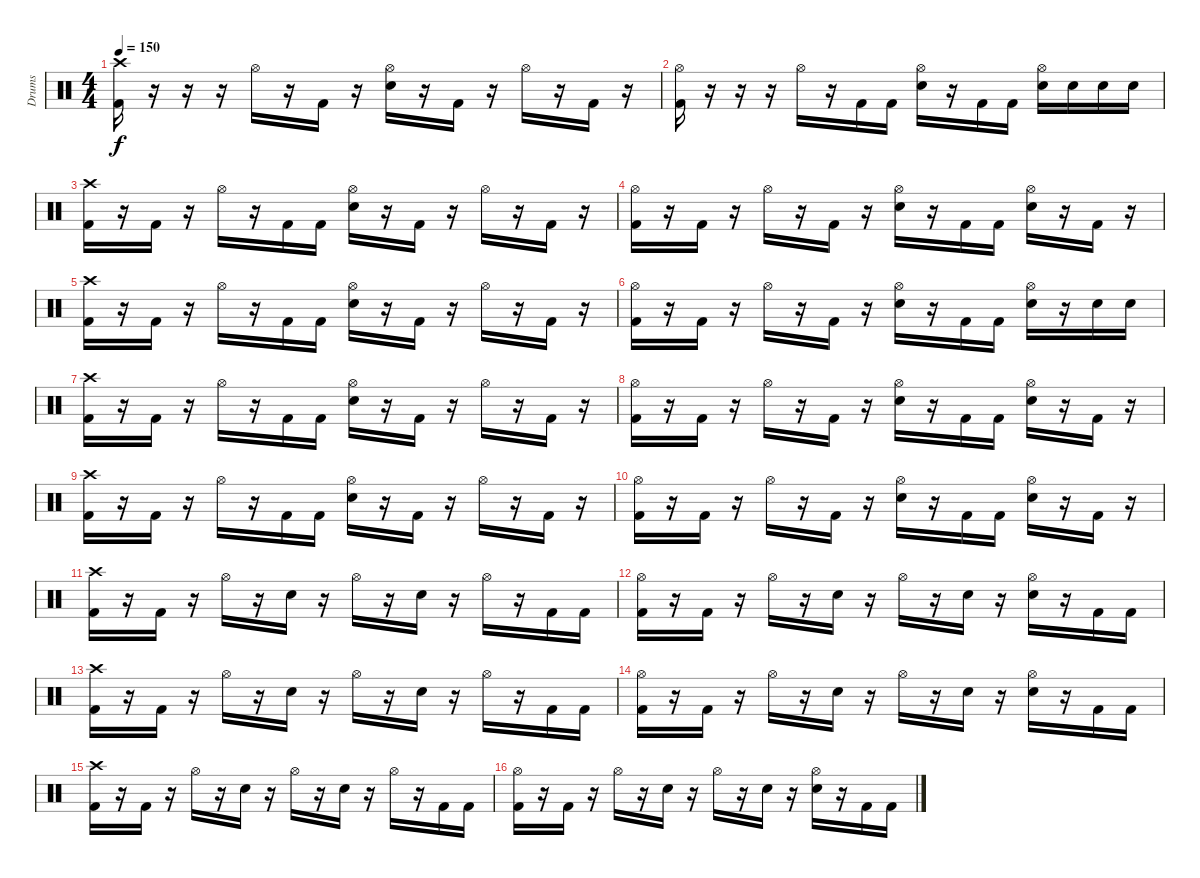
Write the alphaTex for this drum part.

\track ("Drums" "Drums") {instrument percussion}
\staff {score}
\articulation defaults
\ts (4 4)
\tempo 150
\clef neutral
\ks c
("Crash high (hit)" "Kick (hit) 2").16{dy f} r.16 r.16 r.16 "Hi-Hat (open)".16 r.16 "Kick (hit) 2".16 r.16 ("Hi-Hat (open)" "Electric Snare (hit)").16 r.16 "Kick (hit) 2".16 r.16 "Hi-Hat (open)".16 r.16 "Kick (hit) 2".16 r.16 |
("Hi-Hat (open)" "Kick (hit) 2").16 r.16 r.16 r.16 "Hi-Hat (open)".16 r.16 "Kick (hit) 2".16 "Kick (hit) 2".16 ("Hi-Hat (open)" "Electric Snare (hit)").16 r.16 "Kick (hit) 2".16 "Kick (hit) 2".16 ("Hi-Hat (open)" "Electric Snare (hit)").16 "Electric Snare (hit)".16 "Electric Snare (hit)".16 "Electric Snare (hit)".16 |
("Crash high (hit)" "Kick (hit) 2").16 r.16 "Kick (hit) 2".16 r.16 "Hi-Hat (open)".16 r.16 "Kick (hit) 2".16 "Kick (hit) 2".16 ("Hi-Hat (open)" "Electric Snare (hit)").16 r.16 "Kick (hit) 2".16 r.16 "Hi-Hat (open)".16 r.16 "Kick (hit) 2".16 r.16 |
("Hi-Hat (open)" "Kick (hit) 2").16 r.16 "Kick (hit) 2".16 r.16 "Hi-Hat (open)".16 r.16 "Kick (hit) 2".16 r.16 ("Hi-Hat (open)" "Electric Snare (hit)").16 r.16 "Kick (hit) 2".16 "Kick (hit) 2".16 ("Hi-Hat (open)" "Electric Snare (hit)").16 r.16 "Kick (hit) 2".16 r.16 |
("Crash high (hit)" "Kick (hit) 2").16 r.16 "Kick (hit) 2".16 r.16 "Hi-Hat (open)".16 r.16 "Kick (hit) 2".16 "Kick (hit) 2".16 ("Hi-Hat (open)" "Electric Snare (hit)").16 r.16 "Kick (hit) 2".16 r.16 "Hi-Hat (open)".16 r.16 "Kick (hit) 2".16 r.16 |
("Hi-Hat (open)" "Kick (hit) 2").16 r.16 "Kick (hit) 2".16 r.16 "Hi-Hat (open)".16 r.16 "Kick (hit) 2".16 r.16 ("Hi-Hat (open)" "Electric Snare (hit)").16 r.16 "Kick (hit) 2".16 "Kick (hit) 2".16 ("Hi-Hat (open)" "Electric Snare (hit)").16 r.16 "Electric Snare (hit)".16 "Electric Snare (hit)".16 |
("Crash high (hit)" "Kick (hit) 2").16 r.16 "Kick (hit) 2".16 r.16 "Hi-Hat (open)".16 r.16 "Kick (hit) 2".16 "Kick (hit) 2".16 ("Hi-Hat (open)" "Electric Snare (hit)").16 r.16 "Kick (hit) 2".16 r.16 "Hi-Hat (open)".16 r.16 "Kick (hit) 2".16 r.16 |
("Hi-Hat (open)" "Kick (hit) 2").16 r.16 "Kick (hit) 2".16 r.16 "Hi-Hat (open)".16 r.16 "Kick (hit) 2".16 r.16 ("Hi-Hat (open)" "Electric Snare (hit)").16 r.16 "Kick (hit) 2".16 "Kick (hit) 2".16 ("Hi-Hat (open)" "Electric Snare (hit)").16 r.16 "Kick (hit) 2".16 r.16 |
("Crash high (hit)" "Kick (hit) 2").16 r.16 "Kick (hit) 2".16 r.16 "Hi-Hat (open)".16 r.16 "Kick (hit) 2".16 "Kick (hit) 2".16 ("Hi-Hat (open)" "Electric Snare (hit)").16 r.16 "Kick (hit) 2".16 r.16 "Hi-Hat (open)".16 r.16 "Kick (hit) 2".16 r.16 |
("Hi-Hat (open)" "Kick (hit) 2").16 r.16 "Kick (hit) 2".16 r.16 "Hi-Hat (open)".16 r.16 "Kick (hit) 2".16 r.16 ("Hi-Hat (open)" "Electric Snare (hit)").16 r.16 "Kick (hit) 2".16 "Kick (hit) 2".16 ("Hi-Hat (open)" "Electric Snare (hit)").16 r.16 "Kick (hit) 2".16 r.16 |
("Crash high (hit)" "Kick (hit) 2").16 r.16 "Kick (hit) 2".16 r.16 "Hi-Hat (open)".16 r.16 "Electric Snare (hit)".16 r.16 "Hi-Hat (open)".16 r.16 "Electric Snare (hit)".16 r.16 "Hi-Hat (open)".16 r.16 "Kick (hit) 2".16 "Kick (hit) 2".16 |
("Hi-Hat (open)" "Kick (hit) 2").16 r.16 "Kick (hit) 2".16 r.16 "Hi-Hat (open)".16 r.16 "Electric Snare (hit)".16 r.16 "Hi-Hat (open)".16 r.16 "Electric Snare (hit)".16 r.16 ("Hi-Hat (open)" "Electric Snare (hit)").16 r.16 "Kick (hit) 2".16 "Kick (hit) 2".16 |
("Crash high (hit)" "Kick (hit) 2").16 r.16 "Kick (hit) 2".16 r.16 "Hi-Hat (open)".16 r.16 "Electric Snare (hit)".16 r.16 "Hi-Hat (open)".16 r.16 "Electric Snare (hit)".16 r.16 "Hi-Hat (open)".16 r.16 "Kick (hit) 2".16 "Kick (hit) 2".16 |
("Hi-Hat (open)" "Kick (hit) 2").16 r.16 "Kick (hit) 2".16 r.16 "Hi-Hat (open)".16 r.16 "Electric Snare (hit)".16 r.16 "Hi-Hat (open)".16 r.16 "Electric Snare (hit)".16 r.16 ("Hi-Hat (open)" "Electric Snare (hit)").16 r.16 "Kick (hit) 2".16 "Kick (hit) 2".16 |
("Crash high (hit)" "Kick (hit) 2").16 r.16 "Kick (hit) 2".16 r.16 "Hi-Hat (open)".16 r.16 "Electric Snare (hit)".16 r.16 "Hi-Hat (open)".16 r.16 "Electric Snare (hit)".16 r.16 "Hi-Hat (open)".16 r.16 "Kick (hit) 2".16 "Kick (hit) 2".16 |
("Hi-Hat (open)" "Kick (hit) 2").16 r.16 "Kick (hit) 2".16 r.16 "Hi-Hat (open)".16 r.16 "Electric Snare (hit)".16 r.16 "Hi-Hat (open)".16 r.16 "Electric Snare (hit)".16 r.16 ("Hi-Hat (open)" "Electric Snare (hit)").16 r.16 "Kick (hit) 2".16 "Kick (hit) 2".16
